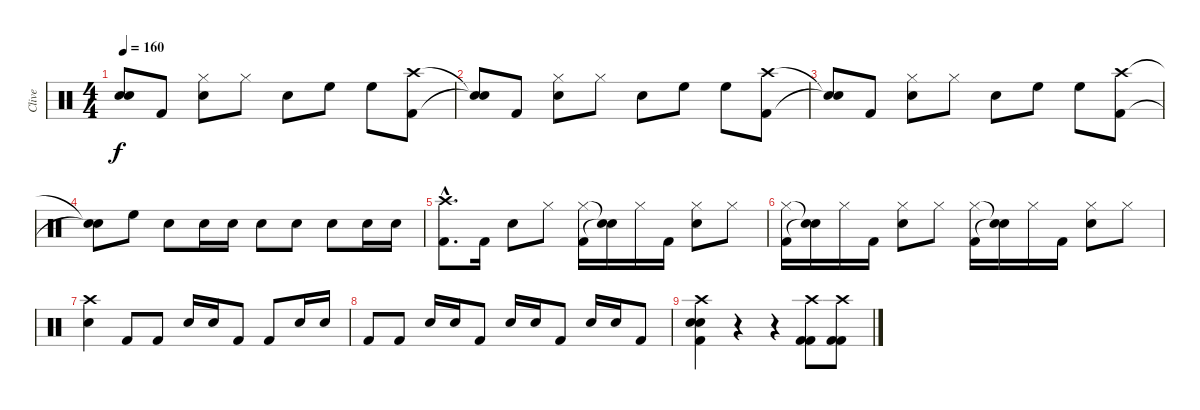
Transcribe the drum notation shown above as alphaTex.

\track ("Clive" "Clive") {instrument percussion}
\staff {score}
\articulation defaults
\ts (4 4)
\tempo 160
\clef neutral
\ks c
("Snare (hit)"{t} "Snare (hit)"{t}).8{dy f} "Kick (hit) 2".8 ("Hi-Hat (closed)" "Snare (hit) 2").8 "Hi-Hat (closed)".8 "Snare (hit) 2".8 "High Floor Tom (hit)".8 "High Floor Tom (hit)".8 ("Crash high (hit)" "Kick (hit) 2").8 |
("Snare (hit)"{t} "Snare (hit)"{t}).8 "Kick (hit) 2".8 ("Hi-Hat (closed)" "Snare (hit) 2").8 "Hi-Hat (closed)".8 "Snare (hit) 2".8 "High Floor Tom (hit)".8 "High Floor Tom (hit)".8 ("Crash high (hit)" "Kick (hit) 2").8 |
("Snare (hit)"{t} "Snare (hit)"{t}).8 "Kick (hit) 2".8 ("Hi-Hat (closed)" "Snare (hit) 2").8 "Hi-Hat (closed)".8 "Snare (hit) 2".8 "High Floor Tom (hit)".8 "High Floor Tom (hit)".8 ("Crash high (hit)" "Kick (hit) 2").8 |
("Snare (hit)"{t} "Snare (hit)"{t}).8 "High Floor Tom (hit)".8 "Snare (hit) 2".8 "Snare (hit) 2".16 "Snare (hit) 2".16 "Snare (hit) 2".8 "Snare (hit) 2".8 "Snare (hit) 2".8 "Snare (hit) 2".16 "Snare (hit) 2".16 |
("Crash high (hit)"{hac} "Kick (hit) 2"{hac}).8{d} "Kick (hit) 2".16 "Snare (hit) 2".8 "Hi-Hat (closed)".8 ("Hi-Hat (closed)" "Kick (hit) 2").16 ("Snare (hit)"{t} "Snare (hit)"{t}).16 "Hi-Hat (closed)".16 "Kick (hit) 2".16 ("Hi-Hat (closed)" "Snare (hit) 2").8 "Hi-Hat (closed)".8 |
("Hi-Hat (closed)" "Kick (hit) 2").16 ("Snare (hit)"{t} "Snare (hit)"{t}).16 "Hi-Hat (closed)".16 "Kick (hit) 2".16 ("Hi-Hat (closed)" "Snare (hit) 2").8 "Hi-Hat (closed)".8 ("Hi-Hat (closed)" "Kick (hit) 2").16 ("Snare (hit)"{t} "Snare (hit)"{t}).16 "Hi-Hat (closed)".16 "Kick (hit) 2".16 ("Hi-Hat (closed)" "Snare (hit) 2").8 "Hi-Hat (closed)".8 |
("Crash high (hit)" "Snare (hit) 2").4 "Kick (hit) 2".8 "Kick (hit) 2".8 "Snare (hit) 2".16 "Snare (hit) 2".16 "Kick (hit) 2".8 "Kick (hit) 2".8 "Snare (hit) 2".16 "Snare (hit) 2".16 |
"Kick (hit) 2".8 "Kick (hit) 2".8 "Snare (hit) 2".16 "Snare (hit) 2".16 "Kick (hit) 2".8 "Snare (hit) 2".16 "Snare (hit) 2".16 "Kick (hit) 2".8 "Snare (hit) 2".16 "Snare (hit) 2".16 "Kick (hit) 2".8 |
("Crash high (hit)" "Snare (hit) 2" "Kick (hit) 2" "Snare (hit) 2").4 r.4 r.4 ("Crash high (hit)" "Kick (hit) 2" "Kick (hit) 2").8 ("Crash high (hit)" "Kick (hit) 2" "Kick (hit) 2").8
